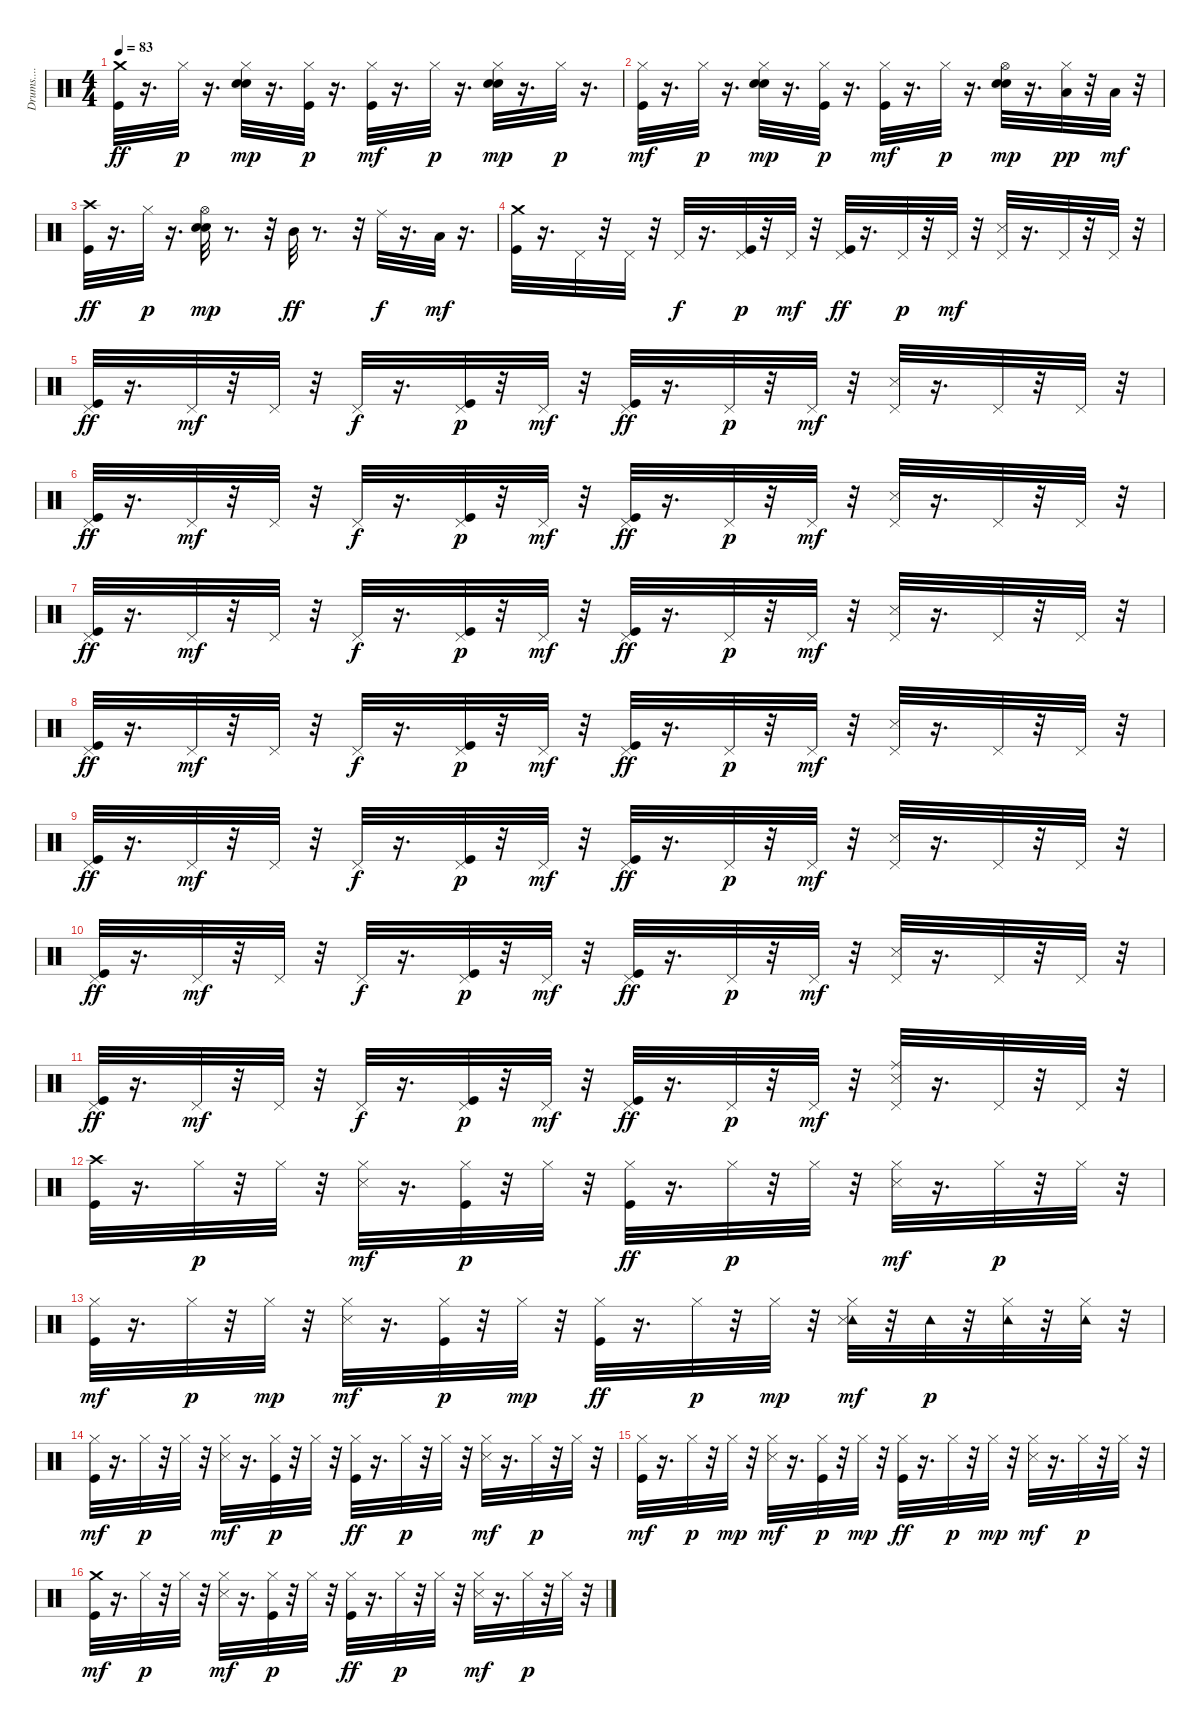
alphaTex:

\track ("Drums....           " "Drums.... ") {instrument percussion}
\staff {score}
\articulation defaults
\ts (4 4)
\tempo 83
\clef neutral
\ks c
("Kick (hit)" "Crash medium (hit)").32{dy ff} r.16{d} "Hi-Hat (closed)".32{dy p} r.16{d} ("Snare (hit) 2" "Hi-Hat (closed)" "Electric Snare (hit)").32{dy mp} r.16{d} ("Kick (hit)" "Hi-Hat (closed)").32{dy p} r.16{d} ("Kick (hit)" "Hi-Hat (closed)").32{dy mf} r.16{d} "Hi-Hat (closed)".32{dy p} r.16{d} ("Snare (hit) 2" "Hi-Hat (closed)" "Electric Snare (hit)").32{dy mp} r.16{d} "Hi-Hat (closed)".32{dy p} r.16{d} |
("Kick (hit)" "Hi-Hat (closed)").32{dy mf} r.16{d} "Hi-Hat (closed)".32{dy p} r.16{d} ("Snare (hit) 2" "Hi-Hat (closed)" "Electric Snare (hit)").32{dy mp} r.16{d} ("Kick (hit)" "Hi-Hat (closed)").32{dy p} r.16{d} ("Kick (hit)" "Hi-Hat (closed)").32{dy mf} r.16{d} "Hi-Hat (closed)".32{dy p} r.16{d} ("Snare (hit) 2" "Hi-Hat (open)" "Electric Snare (hit)").32{dy mp} r.16{d} ("Hi-Hat (closed)" "Low Floor Tom (hit)").32{dy pp} r.32 "Low Floor Tom (hit)".32{dy mf} r.32 |
("Kick (hit)" "Crash high (hit)").32{dy ff} r.16{d} "Hi-Hat (closed)".32{dy p} r.16{d} ("Snare (hit) 2" "Hi-Hat (open)" "Electric Snare (hit)").32{dy mp} r.8{d} r.32 "Mid Tom (hit)".32{dy ff} r.8{d} r.32 "Ride (middle)".32{dy f} r.16{d} "Low Floor Tom (hit)".32{dy mf} r.16{d} |
("Kick (hit)" "Crash medium (hit)").32 r.16{d} "Pedal Hi-Hat (hit)".32 r.32 "Pedal Hi-Hat (hit)".32 r.32 "Pedal Hi-Hat (hit)".32{dy f} r.16{d} ("Kick (hit)" "Pedal Hi-Hat (hit)").32{dy p} r.32 "Pedal Hi-Hat (hit)".32{dy mf} r.32 ("Kick (hit)" "Pedal Hi-Hat (hit)").32{dy ff} r.16{d} "Pedal Hi-Hat (hit)".32{dy p} r.32 "Pedal Hi-Hat (hit)".32{dy mf} r.32 ("Pedal Hi-Hat (hit)" "Snare (side stick) 3").32 r.16{d} "Pedal Hi-Hat (hit)".32 r.32 "Pedal Hi-Hat (hit)".32 r.32 |
("Kick (hit)" "Pedal Hi-Hat (hit)").32{dy ff} r.16{d} "Pedal Hi-Hat (hit)".32{dy mf} r.32 "Pedal Hi-Hat (hit)".32 r.32 "Pedal Hi-Hat (hit)".32{dy f} r.16{d} ("Kick (hit)" "Pedal Hi-Hat (hit)").32{dy p} r.32 "Pedal Hi-Hat (hit)".32{dy mf} r.32 ("Kick (hit)" "Pedal Hi-Hat (hit)").32{dy ff} r.16{d} "Pedal Hi-Hat (hit)".32{dy p} r.32 "Pedal Hi-Hat (hit)".32{dy mf} r.32 ("Pedal Hi-Hat (hit)" "Snare (side stick) 3").32 r.16{d} "Pedal Hi-Hat (hit)".32 r.32 "Pedal Hi-Hat (hit)".32 r.32 |
("Kick (hit)" "Pedal Hi-Hat (hit)").32{dy ff} r.16{d} "Pedal Hi-Hat (hit)".32{dy mf} r.32 "Pedal Hi-Hat (hit)".32 r.32 "Pedal Hi-Hat (hit)".32{dy f} r.16{d} ("Kick (hit)" "Pedal Hi-Hat (hit)").32{dy p} r.32 "Pedal Hi-Hat (hit)".32{dy mf} r.32 ("Kick (hit)" "Pedal Hi-Hat (hit)").32{dy ff} r.16{d} "Pedal Hi-Hat (hit)".32{dy p} r.32 "Pedal Hi-Hat (hit)".32{dy mf} r.32 ("Pedal Hi-Hat (hit)" "Snare (side stick) 3").32 r.16{d} "Pedal Hi-Hat (hit)".32 r.32 "Pedal Hi-Hat (hit)".32 r.32 |
("Kick (hit)" "Pedal Hi-Hat (hit)").32{dy ff} r.16{d} "Pedal Hi-Hat (hit)".32{dy mf} r.32 "Pedal Hi-Hat (hit)".32 r.32 "Pedal Hi-Hat (hit)".32{dy f} r.16{d} ("Kick (hit)" "Pedal Hi-Hat (hit)").32{dy p} r.32 "Pedal Hi-Hat (hit)".32{dy mf} r.32 ("Kick (hit)" "Pedal Hi-Hat (hit)").32{dy ff} r.16{d} "Pedal Hi-Hat (hit)".32{dy p} r.32 "Pedal Hi-Hat (hit)".32{dy mf} r.32 ("Pedal Hi-Hat (hit)" "Snare (side stick) 3").32 r.16{d} "Pedal Hi-Hat (hit)".32 r.32 "Pedal Hi-Hat (hit)".32 r.32 |
("Kick (hit)" "Pedal Hi-Hat (hit)").32{dy ff} r.16{d} "Pedal Hi-Hat (hit)".32{dy mf} r.32 "Pedal Hi-Hat (hit)".32 r.32 "Pedal Hi-Hat (hit)".32{dy f} r.16{d} ("Kick (hit)" "Pedal Hi-Hat (hit)").32{dy p} r.32 "Pedal Hi-Hat (hit)".32{dy mf} r.32 ("Kick (hit)" "Pedal Hi-Hat (hit)").32{dy ff} r.16{d} "Pedal Hi-Hat (hit)".32{dy p} r.32 "Pedal Hi-Hat (hit)".32{dy mf} r.32 ("Pedal Hi-Hat (hit)" "Snare (side stick) 3").32 r.16{d} "Pedal Hi-Hat (hit)".32 r.32 "Pedal Hi-Hat (hit)".32 r.32 |
("Kick (hit)" "Pedal Hi-Hat (hit)").32{dy ff} r.16{d} "Pedal Hi-Hat (hit)".32{dy mf} r.32 "Pedal Hi-Hat (hit)".32 r.32 "Pedal Hi-Hat (hit)".32{dy f} r.16{d} ("Kick (hit)" "Pedal Hi-Hat (hit)").32{dy p} r.32 "Pedal Hi-Hat (hit)".32{dy mf} r.32 ("Kick (hit)" "Pedal Hi-Hat (hit)").32{dy ff} r.16{d} "Pedal Hi-Hat (hit)".32{dy p} r.32 "Pedal Hi-Hat (hit)".32{dy mf} r.32 ("Pedal Hi-Hat (hit)" "Snare (side stick) 3").32 r.16{d} "Pedal Hi-Hat (hit)".32 r.32 "Pedal Hi-Hat (hit)".32 r.32 |
("Kick (hit)" "Pedal Hi-Hat (hit)").32{dy ff} r.16{d} "Pedal Hi-Hat (hit)".32{dy mf} r.32 "Pedal Hi-Hat (hit)".32 r.32 "Pedal Hi-Hat (hit)".32{dy f} r.16{d} ("Kick (hit)" "Pedal Hi-Hat (hit)").32{dy p} r.32 "Pedal Hi-Hat (hit)".32{dy mf} r.32 ("Kick (hit)" "Pedal Hi-Hat (hit)").32{dy ff} r.16{d} "Pedal Hi-Hat (hit)".32{dy p} r.32 "Pedal Hi-Hat (hit)".32{dy mf} r.32 ("Pedal Hi-Hat (hit)" "Snare (side stick) 3").32 r.16{d} "Pedal Hi-Hat (hit)".32 r.32 "Pedal Hi-Hat (hit)".32 r.32 |
("Kick (hit)" "Pedal Hi-Hat (hit)").32{dy ff} r.16{d} "Pedal Hi-Hat (hit)".32{dy mf} r.32 "Pedal Hi-Hat (hit)".32 r.32 "Pedal Hi-Hat (hit)".32{dy f} r.16{d} ("Kick (hit)" "Pedal Hi-Hat (hit)").32{dy p} r.32 "Pedal Hi-Hat (hit)".32{dy mf} r.32 ("Kick (hit)" "Pedal Hi-Hat (hit)").32{dy ff} r.16{d} "Pedal Hi-Hat (hit)".32{dy p} r.32 "Pedal Hi-Hat (hit)".32{dy mf} r.32 ("Pedal Hi-Hat (hit)" "Ride (middle)" "Snare (side stick) 3").32 r.16{d} "Pedal Hi-Hat (hit)".32 r.32 "Pedal Hi-Hat (hit)".32 r.32 |
("Kick (hit)" "Crash high (hit)").32 r.16{d} "Hi-Hat (closed)".32{dy p} r.32 "Hi-Hat (closed)".32 r.32 ("Hi-Hat (closed)" "Snare (side stick) 3").32{dy mf} r.16{d} ("Kick (hit)" "Hi-Hat (closed)").32{dy p} r.32 "Hi-Hat (closed)".32 r.32 ("Kick (hit)" "Hi-Hat (closed)").32{dy ff} r.16{d} "Hi-Hat (closed)".32{dy p} r.32 "Hi-Hat (closed)".32 r.32 ("Hi-Hat (closed)" "Snare (side stick) 3").32{dy mf} r.16{d} "Hi-Hat (closed)".32{dy p} r.32 "Hi-Hat (closed)".32 r.32 |
("Kick (hit)" "Hi-Hat (closed)").32{dy mf} r.16{d} "Hi-Hat (closed)".32{dy p} r.32 "Hi-Hat (closed)".32{dy mp} r.32 ("Hi-Hat (closed)" "Snare (side stick) 3").32{dy mf} r.16{d} ("Kick (hit)" "Hi-Hat (closed)").32{dy p} r.32 "Hi-Hat (closed)".32{dy mp} r.32 ("Kick (hit)" "Hi-Hat (closed)").32{dy ff} r.16{d} "Hi-Hat (closed)".32{dy p} r.32 "Hi-Hat (closed)".32{dy mp} r.32 ("Tambourine (hit)" "Hi-Hat (closed)" "Snare (side stick) 3").32{dy mf} r.32 "Tambourine (hit)".32{dy p} r.32 ("Tambourine (hit)" "Hi-Hat (closed)").32 r.32 ("Tambourine (hit)" "Hi-Hat (closed)").32 r.32 |
("Kick (hit)" "Hi-Hat (closed)").32{dy mf} r.16{d} "Hi-Hat (closed)".32{dy p} r.32 "Hi-Hat (closed)".32 r.32 ("Hi-Hat (closed)" "Snare (side stick) 3").32{dy mf} r.16{d} ("Kick (hit)" "Hi-Hat (closed)").32{dy p} r.32 "Hi-Hat (closed)".32 r.32 ("Kick (hit)" "Hi-Hat (closed)").32{dy ff} r.16{d} "Hi-Hat (closed)".32{dy p} r.32 "Hi-Hat (closed)".32 r.32 ("Hi-Hat (closed)" "Snare (side stick) 3").32{dy mf} r.16{d} "Hi-Hat (closed)".32{dy p} r.32 "Hi-Hat (closed)".32 r.32 |
("Kick (hit)" "Hi-Hat (closed)").32{dy mf} r.16{d} "Hi-Hat (closed)".32{dy p} r.32 "Hi-Hat (closed)".32{dy mp} r.32 ("Hi-Hat (closed)" "Snare (side stick) 3").32{dy mf} r.16{d} ("Kick (hit)" "Hi-Hat (closed)").32{dy p} r.32 "Hi-Hat (closed)".32{dy mp} r.32 ("Kick (hit)" "Hi-Hat (closed)").32{dy ff} r.16{d} "Hi-Hat (closed)".32{dy p} r.32 "Hi-Hat (closed)".32{dy mp} r.32 ("Hi-Hat (closed)" "Snare (side stick) 3").32{dy mf} r.16{d} "Hi-Hat (closed)".32{dy p} r.32 "Hi-Hat (closed)".32 r.32 |
("Kick (hit)" "Crash medium (hit)").32{dy mf} r.16{d} "Hi-Hat (closed)".32{dy p} r.32 "Hi-Hat (closed)".32 r.32 ("Hi-Hat (closed)" "Snare (side stick) 3").32{dy mf} r.16{d} ("Kick (hit)" "Hi-Hat (closed)").32{dy p} r.32 "Hi-Hat (closed)".32 r.32 ("Kick (hit)" "Hi-Hat (closed)").32{dy ff} r.16{d} "Hi-Hat (closed)".32{dy p} r.32 "Hi-Hat (closed)".32 r.32 ("Hi-Hat (closed)" "Snare (side stick) 3").32{dy mf} r.16{d} "Hi-Hat (closed)".32{dy p} r.32 "Hi-Hat (closed)".32 r.32
